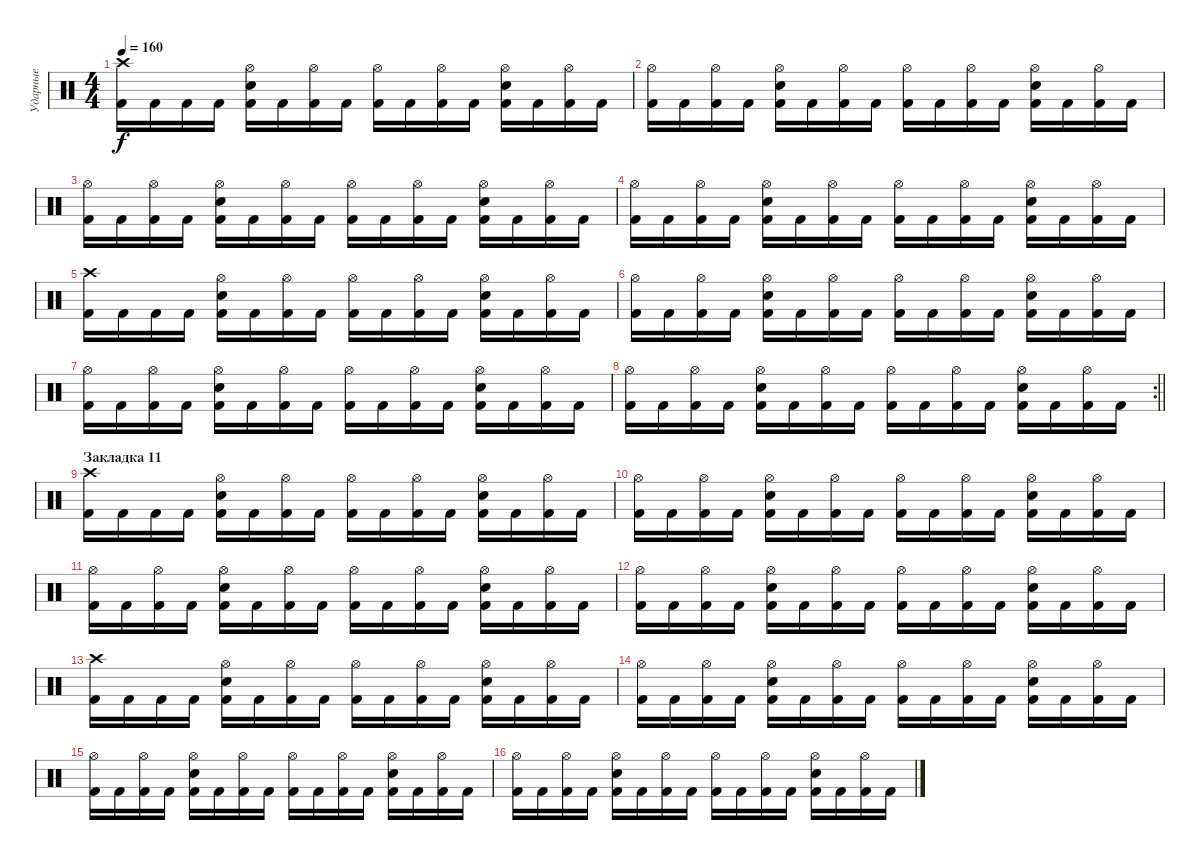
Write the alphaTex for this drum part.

\track ("Ударные" "Ударные") {instrument percussion}
\staff {score}
\articulation defaults
\ts (4 4)
\tempo 160
\clef neutral
\ks c
("Crash high (hit)" "Kick (hit) 2").16{dy f} "Kick (hit) 2".16 "Kick (hit) 2".16 "Kick (hit) 2".16 ("Electric Snare (hit)" "Hi-Hat (open)" "Kick (hit) 2").16 "Kick (hit) 2".16 ("Hi-Hat (open)" "Kick (hit) 2").16 "Kick (hit) 2".16 ("Hi-Hat (open)" "Kick (hit) 2").16 "Kick (hit) 2".16 ("Hi-Hat (open)" "Kick (hit) 2").16 "Kick (hit) 2".16 ("Electric Snare (hit)" "Hi-Hat (open)" "Kick (hit) 2").16 "Kick (hit) 2".16 ("Hi-Hat (open)" "Kick (hit) 2").16 "Kick (hit) 2".16 |
("Hi-Hat (open)" "Kick (hit) 2").16 "Kick (hit) 2".16 ("Hi-Hat (open)" "Kick (hit) 2").16 "Kick (hit) 2".16 ("Electric Snare (hit)" "Hi-Hat (open)" "Kick (hit) 2").16 "Kick (hit) 2".16 ("Hi-Hat (open)" "Kick (hit) 2").16 "Kick (hit) 2".16 ("Hi-Hat (open)" "Kick (hit) 2").16 "Kick (hit) 2".16 ("Hi-Hat (open)" "Kick (hit) 2").16 "Kick (hit) 2".16 ("Electric Snare (hit)" "Hi-Hat (open)" "Kick (hit) 2").16 "Kick (hit) 2".16 ("Hi-Hat (open)" "Kick (hit) 2").16 "Kick (hit) 2".16 |
("Hi-Hat (open)" "Kick (hit) 2").16 "Kick (hit) 2".16 ("Hi-Hat (open)" "Kick (hit) 2").16 "Kick (hit) 2".16 ("Electric Snare (hit)" "Hi-Hat (open)" "Kick (hit) 2").16 "Kick (hit) 2".16 ("Hi-Hat (open)" "Kick (hit) 2").16 "Kick (hit) 2".16 ("Hi-Hat (open)" "Kick (hit) 2").16 "Kick (hit) 2".16 ("Hi-Hat (open)" "Kick (hit) 2").16 "Kick (hit) 2".16 ("Electric Snare (hit)" "Hi-Hat (open)" "Kick (hit) 2").16 "Kick (hit) 2".16 ("Hi-Hat (open)" "Kick (hit) 2").16 "Kick (hit) 2".16 |
("Hi-Hat (open)" "Kick (hit) 2").16 "Kick (hit) 2".16 ("Hi-Hat (open)" "Kick (hit) 2").16 "Kick (hit) 2".16 ("Electric Snare (hit)" "Hi-Hat (open)" "Kick (hit) 2").16 "Kick (hit) 2".16 ("Hi-Hat (open)" "Kick (hit) 2").16 "Kick (hit) 2".16 ("Hi-Hat (open)" "Kick (hit) 2").16 "Kick (hit) 2".16 ("Hi-Hat (open)" "Kick (hit) 2").16 "Kick (hit) 2".16 ("Electric Snare (hit)" "Hi-Hat (open)" "Kick (hit) 2").16 "Kick (hit) 2".16 ("Hi-Hat (open)" "Kick (hit) 2").16 "Kick (hit) 2".16 |
("Crash high (hit)" "Kick (hit) 2").16 "Kick (hit) 2".16 "Kick (hit) 2".16 "Kick (hit) 2".16 ("Electric Snare (hit)" "Hi-Hat (open)" "Kick (hit) 2").16 "Kick (hit) 2".16 ("Hi-Hat (open)" "Kick (hit) 2").16 "Kick (hit) 2".16 ("Hi-Hat (open)" "Kick (hit) 2").16 "Kick (hit) 2".16 ("Hi-Hat (open)" "Kick (hit) 2").16 "Kick (hit) 2".16 ("Electric Snare (hit)" "Hi-Hat (open)" "Kick (hit) 2").16 "Kick (hit) 2".16 ("Hi-Hat (open)" "Kick (hit) 2").16 "Kick (hit) 2".16 |
("Hi-Hat (open)" "Kick (hit) 2").16 "Kick (hit) 2".16 ("Hi-Hat (open)" "Kick (hit) 2").16 "Kick (hit) 2".16 ("Electric Snare (hit)" "Hi-Hat (open)" "Kick (hit) 2").16 "Kick (hit) 2".16 ("Hi-Hat (open)" "Kick (hit) 2").16 "Kick (hit) 2".16 ("Hi-Hat (open)" "Kick (hit) 2").16 "Kick (hit) 2".16 ("Hi-Hat (open)" "Kick (hit) 2").16 "Kick (hit) 2".16 ("Electric Snare (hit)" "Hi-Hat (open)" "Kick (hit) 2").16 "Kick (hit) 2".16 ("Hi-Hat (open)" "Kick (hit) 2").16 "Kick (hit) 2".16 |
("Hi-Hat (open)" "Kick (hit) 2").16 "Kick (hit) 2".16 ("Hi-Hat (open)" "Kick (hit) 2").16 "Kick (hit) 2".16 ("Electric Snare (hit)" "Hi-Hat (open)" "Kick (hit) 2").16 "Kick (hit) 2".16 ("Hi-Hat (open)" "Kick (hit) 2").16 "Kick (hit) 2".16 ("Hi-Hat (open)" "Kick (hit) 2").16 "Kick (hit) 2".16 ("Hi-Hat (open)" "Kick (hit) 2").16 "Kick (hit) 2".16 ("Electric Snare (hit)" "Hi-Hat (open)" "Kick (hit) 2").16 "Kick (hit) 2".16 ("Hi-Hat (open)" "Kick (hit) 2").16 "Kick (hit) 2".16 |
\rc 2
\barLineRight lightlight
("Hi-Hat (open)" "Kick (hit) 2").16 "Kick (hit) 2".16 ("Hi-Hat (open)" "Kick (hit) 2").16 "Kick (hit) 2".16 ("Electric Snare (hit)" "Hi-Hat (open)" "Kick (hit) 2").16 "Kick (hit) 2".16 ("Hi-Hat (open)" "Kick (hit) 2").16 "Kick (hit) 2".16 ("Hi-Hat (open)" "Kick (hit) 2").16 "Kick (hit) 2".16 ("Hi-Hat (open)" "Kick (hit) 2").16 "Kick (hit) 2".16 ("Electric Snare (hit)" "Hi-Hat (open)" "Kick (hit) 2").16 "Kick (hit) 2".16 ("Hi-Hat (open)" "Kick (hit) 2").16 "Kick (hit) 2".16 |
\section ("" "Закладка 11")
("Crash high (hit)" "Kick (hit) 2").16 "Kick (hit) 2".16 "Kick (hit) 2".16 "Kick (hit) 2".16 ("Electric Snare (hit)" "Hi-Hat (open)" "Kick (hit) 2").16 "Kick (hit) 2".16 ("Hi-Hat (open)" "Kick (hit) 2").16 "Kick (hit) 2".16 ("Hi-Hat (open)" "Kick (hit) 2").16 "Kick (hit) 2".16 ("Hi-Hat (open)" "Kick (hit) 2").16 "Kick (hit) 2".16 ("Electric Snare (hit)" "Hi-Hat (open)" "Kick (hit) 2").16 "Kick (hit) 2".16 ("Hi-Hat (open)" "Kick (hit) 2").16 "Kick (hit) 2".16 |
("Hi-Hat (open)" "Kick (hit) 2").16 "Kick (hit) 2".16 ("Hi-Hat (open)" "Kick (hit) 2").16 "Kick (hit) 2".16 ("Electric Snare (hit)" "Hi-Hat (open)" "Kick (hit) 2").16 "Kick (hit) 2".16 ("Hi-Hat (open)" "Kick (hit) 2").16 "Kick (hit) 2".16 ("Hi-Hat (open)" "Kick (hit) 2").16 "Kick (hit) 2".16 ("Hi-Hat (open)" "Kick (hit) 2").16 "Kick (hit) 2".16 ("Electric Snare (hit)" "Hi-Hat (open)" "Kick (hit) 2").16 "Kick (hit) 2".16 ("Hi-Hat (open)" "Kick (hit) 2").16 "Kick (hit) 2".16 |
("Hi-Hat (open)" "Kick (hit) 2").16 "Kick (hit) 2".16 ("Hi-Hat (open)" "Kick (hit) 2").16 "Kick (hit) 2".16 ("Electric Snare (hit)" "Hi-Hat (open)" "Kick (hit) 2").16 "Kick (hit) 2".16 ("Hi-Hat (open)" "Kick (hit) 2").16 "Kick (hit) 2".16 ("Hi-Hat (open)" "Kick (hit) 2").16 "Kick (hit) 2".16 ("Hi-Hat (open)" "Kick (hit) 2").16 "Kick (hit) 2".16 ("Electric Snare (hit)" "Hi-Hat (open)" "Kick (hit) 2").16 "Kick (hit) 2".16 ("Hi-Hat (open)" "Kick (hit) 2").16 "Kick (hit) 2".16 |
("Hi-Hat (open)" "Kick (hit) 2").16 "Kick (hit) 2".16 ("Hi-Hat (open)" "Kick (hit) 2").16 "Kick (hit) 2".16 ("Electric Snare (hit)" "Hi-Hat (open)" "Kick (hit) 2").16 "Kick (hit) 2".16 ("Hi-Hat (open)" "Kick (hit) 2").16 "Kick (hit) 2".16 ("Hi-Hat (open)" "Kick (hit) 2").16 "Kick (hit) 2".16 ("Hi-Hat (open)" "Kick (hit) 2").16 "Kick (hit) 2".16 ("Electric Snare (hit)" "Hi-Hat (open)" "Kick (hit) 2").16 "Kick (hit) 2".16 ("Hi-Hat (open)" "Kick (hit) 2").16 "Kick (hit) 2".16 |
("Crash high (hit)" "Kick (hit) 2").16 "Kick (hit) 2".16 "Kick (hit) 2".16 "Kick (hit) 2".16 ("Electric Snare (hit)" "Hi-Hat (open)" "Kick (hit) 2").16 "Kick (hit) 2".16 ("Hi-Hat (open)" "Kick (hit) 2").16 "Kick (hit) 2".16 ("Hi-Hat (open)" "Kick (hit) 2").16 "Kick (hit) 2".16 ("Hi-Hat (open)" "Kick (hit) 2").16 "Kick (hit) 2".16 ("Electric Snare (hit)" "Hi-Hat (open)" "Kick (hit) 2").16 "Kick (hit) 2".16 ("Hi-Hat (open)" "Kick (hit) 2").16 "Kick (hit) 2".16 |
("Hi-Hat (open)" "Kick (hit) 2").16 "Kick (hit) 2".16 ("Hi-Hat (open)" "Kick (hit) 2").16 "Kick (hit) 2".16 ("Electric Snare (hit)" "Hi-Hat (open)" "Kick (hit) 2").16 "Kick (hit) 2".16 ("Hi-Hat (open)" "Kick (hit) 2").16 "Kick (hit) 2".16 ("Hi-Hat (open)" "Kick (hit) 2").16 "Kick (hit) 2".16 ("Hi-Hat (open)" "Kick (hit) 2").16 "Kick (hit) 2".16 ("Electric Snare (hit)" "Hi-Hat (open)" "Kick (hit) 2").16 "Kick (hit) 2".16 ("Hi-Hat (open)" "Kick (hit) 2").16 "Kick (hit) 2".16 |
("Hi-Hat (open)" "Kick (hit) 2").16 "Kick (hit) 2".16 ("Hi-Hat (open)" "Kick (hit) 2").16 "Kick (hit) 2".16 ("Electric Snare (hit)" "Hi-Hat (open)" "Kick (hit) 2").16 "Kick (hit) 2".16 ("Hi-Hat (open)" "Kick (hit) 2").16 "Kick (hit) 2".16 ("Hi-Hat (open)" "Kick (hit) 2").16 "Kick (hit) 2".16 ("Hi-Hat (open)" "Kick (hit) 2").16 "Kick (hit) 2".16 ("Electric Snare (hit)" "Hi-Hat (open)" "Kick (hit) 2").16 "Kick (hit) 2".16 ("Hi-Hat (open)" "Kick (hit) 2").16 "Kick (hit) 2".16 |
("Hi-Hat (open)" "Kick (hit) 2").16 "Kick (hit) 2".16 ("Hi-Hat (open)" "Kick (hit) 2").16 "Kick (hit) 2".16 ("Electric Snare (hit)" "Hi-Hat (open)" "Kick (hit) 2").16 "Kick (hit) 2".16 ("Hi-Hat (open)" "Kick (hit) 2").16 "Kick (hit) 2".16 ("Hi-Hat (open)" "Kick (hit) 2").16 "Kick (hit) 2".16 ("Hi-Hat (open)" "Kick (hit) 2").16 "Kick (hit) 2".16 ("Electric Snare (hit)" "Hi-Hat (open)" "Kick (hit) 2").16 "Kick (hit) 2".16 ("Hi-Hat (open)" "Kick (hit) 2").16 "Kick (hit) 2".16
